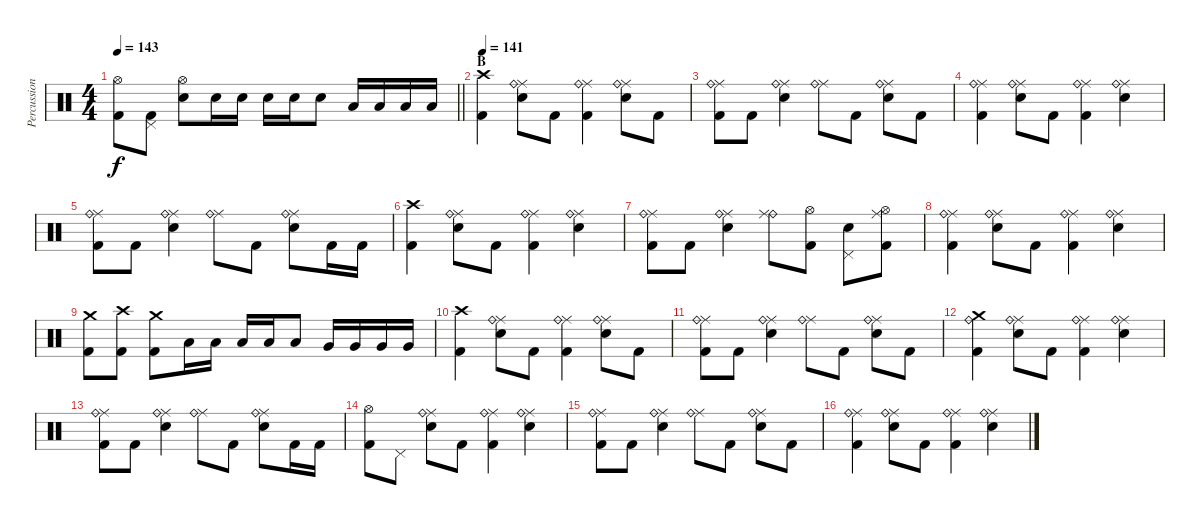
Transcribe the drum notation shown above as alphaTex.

\track ("Percussion" "Percussion") {instrument percussion}
\staff {score}
\articulation defaults
\ts (4 4)
\tempo 143
\clef neutral
\barLineRight lightlight
\ks c
("Hi-Hat (open)" "Kick (hit) 2").8{dy f} ("Pedal Hi-Hat (hit)" "Kick (hit) 2").8 ("Hi-Hat (open)" "Snare (hit) 2").8 "Snare (hit) 2".16 "Snare (hit) 2".16 "Snare (hit) 2".16 "Snare (hit) 2".16 "Snare (hit) 2".8 "Low Tom (hit)".16 "Low Tom (hit)".16 "Low Tom (hit)".16 "Low Tom (hit)".16 |
\section ("" "B")
\tempo 141
("Crash high (hit)" "Kick (hit) 2").4 ("Ride (middle)" "Ride (bell)" "Snare (hit) 2").8 "Kick (hit) 2".8 ("Ride (middle)" "Ride (bell)" "Kick (hit) 2").4 ("Ride (middle)" "Ride (bell)" "Snare (hit) 2").8 "Kick (hit) 2".8 |
("Ride (middle)" "Ride (bell)" "Kick (hit) 2").8 "Kick (hit) 2".8 ("Ride (middle)" "Ride (bell)" "Snare (hit) 2").4 ("Ride (middle)" "Ride (bell)").8 "Kick (hit) 2".8 ("Ride (middle)" "Ride (bell)" "Snare (hit) 2").8 "Kick (hit) 2".8 |
("Ride (middle)" "Ride (bell)" "Kick (hit) 2").4 ("Ride (middle)" "Ride (bell)" "Snare (hit) 2").8 "Kick (hit) 2".8 ("Ride (middle)" "Ride (bell)" "Kick (hit) 2").4 ("Ride (middle)" "Ride (bell)" "Snare (hit) 2").4 |
("Ride (middle)" "Ride (bell)" "Kick (hit) 2").8 "Kick (hit) 2".8 ("Ride (middle)" "Ride (bell)" "Snare (hit) 2").4 ("Ride (middle)" "Ride (bell)").8 "Kick (hit) 2".8 ("Ride (middle)" "Ride (bell)" "Snare (hit) 2").8 "Kick (hit) 2".16 "Kick (hit) 2".16 |
("Crash high (hit)" "Kick (hit) 2").4 ("Ride (middle)" "Ride (bell)" "Snare (hit) 2").8 "Kick (hit) 2".8 ("Ride (middle)" "Ride (bell)" "Kick (hit) 2").4 ("Ride (middle)" "Ride (bell)" "Snare (hit) 2").4 |
("Ride (middle)" "Ride (bell)" "Kick (hit) 2").8 "Kick (hit) 2".8 ("Ride (middle)" "Ride (bell)" "Snare (hit) 2").4 ("Ride (bell)" "Ride (middle)").8 ("Hi-Hat (open)" "Kick (hit) 2").8 ("Pedal Hi-Hat (hit)" "Snare (hit) 2").8 ("Ride (middle)" "Hi-Hat (open)" "Kick (hit) 2").8 |
("Ride (middle)" "Ride (bell)" "Kick (hit) 2").4 ("Ride (middle)" "Ride (bell)" "Snare (hit) 2").8 "Kick (hit) 2".8 ("Ride (middle)" "Ride (bell)" "Kick (hit) 2").4 ("Ride (middle)" "Ride (bell)" "Snare (hit) 2").4 |
("Crash medium (hit)" "Kick (hit) 2").8 ("Crash high (hit)" "Kick (hit) 2").8 ("Crash medium (hit)" "Kick (hit) 2").8 "Low Tom (hit)".16 "Low Tom (hit)".16 "Low Tom (hit)".16 "Low Tom (hit)".16 "Low Tom (hit)".8 "Very Low Tom (hit)".16 "Very Low Tom (hit)".16 "Very Low Tom (hit)".16 "Very Low Tom (hit)".16 |
("Crash high (hit)" "Kick (hit) 2").4 ("Ride (middle)" "Ride (bell)" "Snare (hit) 2").8 "Kick (hit) 2".8 ("Ride (middle)" "Ride (bell)" "Kick (hit) 2").4 ("Ride (middle)" "Ride (bell)" "Snare (hit) 2").8 "Kick (hit) 2".8 |
("Ride (middle)" "Ride (bell)" "Kick (hit) 2").8 "Kick (hit) 2".8 ("Ride (middle)" "Ride (bell)" "Snare (hit) 2").4 ("Ride (middle)" "Ride (bell)").8 "Kick (hit) 2".8 ("Ride (middle)" "Ride (bell)" "Snare (hit) 2").8 "Kick (hit) 2".8 |
("Crash medium (hit)" "Ride (bell)" "Kick (hit) 2").4 ("Ride (middle)" "Ride (bell)" "Snare (hit) 2").8 "Kick (hit) 2".8 ("Ride (middle)" "Ride (bell)" "Kick (hit) 2").4 ("Ride (middle)" "Ride (bell)" "Snare (hit) 2").4 |
("Ride (middle)" "Ride (bell)" "Kick (hit) 2").8 "Kick (hit) 2".8 ("Ride (middle)" "Ride (bell)" "Snare (hit) 2").4 ("Ride (middle)" "Ride (bell)").8 "Kick (hit) 2".8 ("Ride (middle)" "Ride (bell)" "Snare (hit) 2").8 "Kick (hit) 2".16 "Kick (hit) 2".16 |
("Hi-Hat (open)" "Kick (hit) 2").8 "Pedal Hi-Hat (hit)".8 ("Ride (middle)" "Ride (bell)" "Snare (hit) 2").8 "Kick (hit) 2".8 ("Ride (middle)" "Ride (bell)" "Kick (hit) 2").4 ("Ride (middle)" "Ride (bell)" "Snare (hit) 2").4 |
("Ride (middle)" "Ride (bell)" "Kick (hit) 2").8 "Kick (hit) 2".8 ("Ride (middle)" "Ride (bell)" "Snare (hit) 2").4 ("Ride (middle)" "Ride (bell)").8 "Kick (hit) 2".8 ("Ride (middle)" "Ride (bell)" "Snare (hit) 2").8 "Kick (hit) 2".8 |
("Ride (middle)" "Ride (bell)" "Kick (hit) 2").4 ("Ride (middle)" "Ride (bell)" "Snare (hit) 2").8 "Kick (hit) 2".8 ("Ride (middle)" "Ride (bell)" "Kick (hit) 2").4 ("Ride (middle)" "Ride (bell)" "Snare (hit) 2").4
